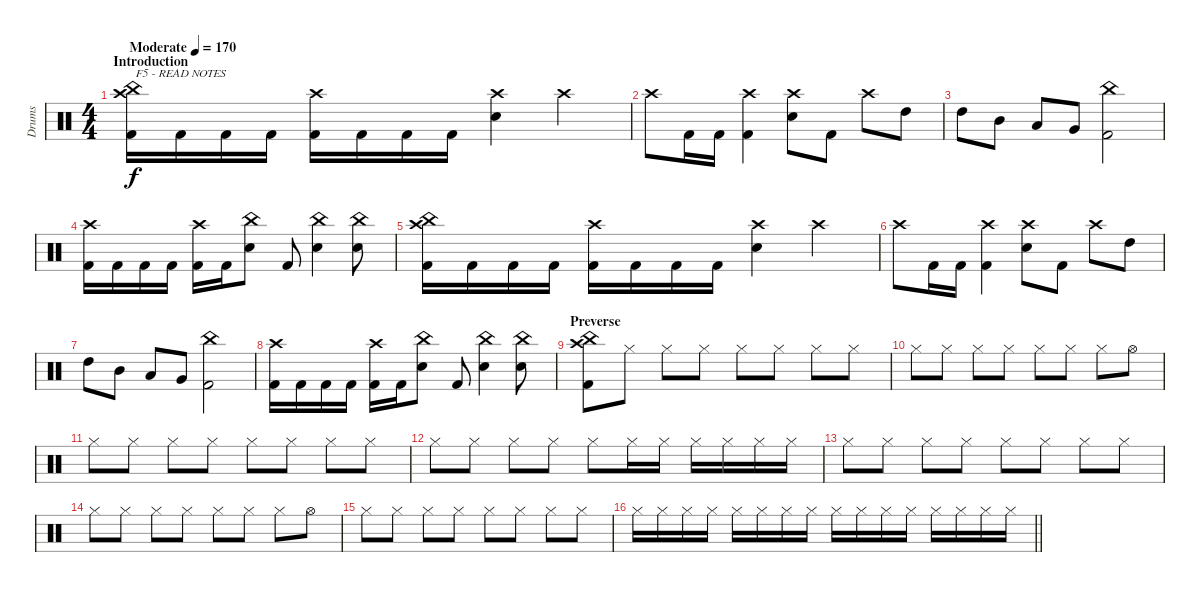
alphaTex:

\track ("Drums" "Drums") {instrument percussion}
\staff {score}
\articulation defaults
\ts (4 4)
\section ("" "Introduction")
\tempo (170 "Moderate")
\clef neutral
\ks c
("Crash high (hit)" "China (hit)" "Kick (hit) 2").16{txt "F5 - READ NOTES" dy f} "Kick (hit) 2".16 "Kick (hit) 2".16 "Kick (hit) 2".16 ("Crash high (hit)" "Kick (hit) 2").16 "Kick (hit) 2".16 "Kick (hit) 2".16 "Kick (hit) 2".16 ("Crash high (hit)" "Electric Snare (hit)").4 "Crash high (hit)".4 |
"Crash high (hit)".8 "Kick (hit) 2".16 "Kick (hit) 2".16 ("Crash high (hit)" "Kick (hit) 2").4 ("Crash high (hit)" "Electric Snare (hit)").8 "Kick (hit) 2".8 "Crash high (hit)".8 "High Tom (hit)".8 |
"High Tom (hit)".8 "Mid Tom (hit)".8 "Low Tom (hit)".8 "Very Low Tom (hit)".8 ("China (hit)" "Kick (hit) 2").2 |
("Crash high (hit)" "Kick (hit) 2").16 "Kick (hit) 2".16 "Kick (hit) 2".16 "Kick (hit) 2".16 ("Crash high (hit)" "Kick (hit) 2").16 "Kick (hit) 2".16 ("China (hit)" "Electric Snare (hit)").8 "Kick (hit) 2".8 ("China (hit)" "Electric Snare (hit)").4 ("China (hit)" "Electric Snare (hit)").8 |
("Crash high (hit)" "China (hit)" "Kick (hit) 2").16 "Kick (hit) 2".16 "Kick (hit) 2".16 "Kick (hit) 2".16 ("Crash high (hit)" "Kick (hit) 2").16 "Kick (hit) 2".16 "Kick (hit) 2".16 "Kick (hit) 2".16 ("Crash high (hit)" "Electric Snare (hit)").4 "Crash high (hit)".4 |
"Crash high (hit)".8 "Kick (hit) 2".16 "Kick (hit) 2".16 ("Crash high (hit)" "Kick (hit) 2").4 ("Crash high (hit)" "Electric Snare (hit)").8 "Kick (hit) 2".8 "Crash high (hit)".8 "High Tom (hit)".8 |
"High Tom (hit)".8 "Mid Tom (hit)".8 "Low Tom (hit)".8 "Very Low Tom (hit)".8 ("China (hit)" "Kick (hit) 2").2 |
("Crash high (hit)" "Kick (hit) 2").16 "Kick (hit) 2".16 "Kick (hit) 2".16 "Kick (hit) 2".16 ("Crash high (hit)" "Kick (hit) 2").16 "Kick (hit) 2".16 ("China (hit)" "Electric Snare (hit)").8 "Kick (hit) 2".8 ("China (hit)" "Electric Snare (hit)").4 ("China (hit)" "Electric Snare (hit)").8 |
\section ("" "Preverse")
("Crash high (hit)" "China (hit)" "Kick (hit) 2").8 "Hi-Hat (closed)".8 "Hi-Hat (closed)".8 "Hi-Hat (closed)".8 "Hi-Hat (closed)".8 "Hi-Hat (closed)".8 "Hi-Hat (closed)".8 "Hi-Hat (closed)".8 |
"Hi-Hat (closed)".8 "Hi-Hat (closed)".8 "Hi-Hat (closed)".8 "Hi-Hat (closed)".8 "Hi-Hat (closed)".8 "Hi-Hat (closed)".8 "Hi-Hat (closed)".8 "Hi-Hat (open)".8 |
"Hi-Hat (closed)".8 "Hi-Hat (closed)".8 "Hi-Hat (closed)".8 "Hi-Hat (closed)".8 "Hi-Hat (closed)".8 "Hi-Hat (closed)".8 "Hi-Hat (closed)".8 "Hi-Hat (closed)".8 |
"Hi-Hat (closed)".8 "Hi-Hat (closed)".8 "Hi-Hat (closed)".8 "Hi-Hat (closed)".8 "Hi-Hat (closed)".8 "Hi-Hat (closed)".16 "Hi-Hat (closed)".16 "Hi-Hat (closed)".16 "Hi-Hat (closed)".16 "Hi-Hat (closed)".16 "Hi-Hat (closed)".16 |
"Hi-Hat (closed)".8 "Hi-Hat (closed)".8 "Hi-Hat (closed)".8 "Hi-Hat (closed)".8 "Hi-Hat (closed)".8 "Hi-Hat (closed)".8 "Hi-Hat (closed)".8 "Hi-Hat (closed)".8 |
"Hi-Hat (closed)".8 "Hi-Hat (closed)".8 "Hi-Hat (closed)".8 "Hi-Hat (closed)".8 "Hi-Hat (closed)".8 "Hi-Hat (closed)".8 "Hi-Hat (closed)".8 "Hi-Hat (open)".8 |
"Hi-Hat (closed)".8 "Hi-Hat (closed)".8 "Hi-Hat (closed)".8 "Hi-Hat (closed)".8 "Hi-Hat (closed)".8 "Hi-Hat (closed)".8 "Hi-Hat (closed)".8 "Hi-Hat (closed)".8 |
\barLineRight lightlight "Hi-Hat (closed)".16 "Hi-Hat (closed)".16 "Hi-Hat (closed)".16 "Hi-Hat (closed)".16 "Hi-Hat (closed)".16 "Hi-Hat (closed)".16 "Hi-Hat (closed)".16 "Hi-Hat (closed)".16 "Hi-Hat (closed)".16 "Hi-Hat (closed)".16 "Hi-Hat (closed)".16 "Hi-Hat (closed)".16 "Hi-Hat (closed)".16 "Hi-Hat (closed)".16 "Hi-Hat (closed)".16 "Hi-Hat (closed)".16
